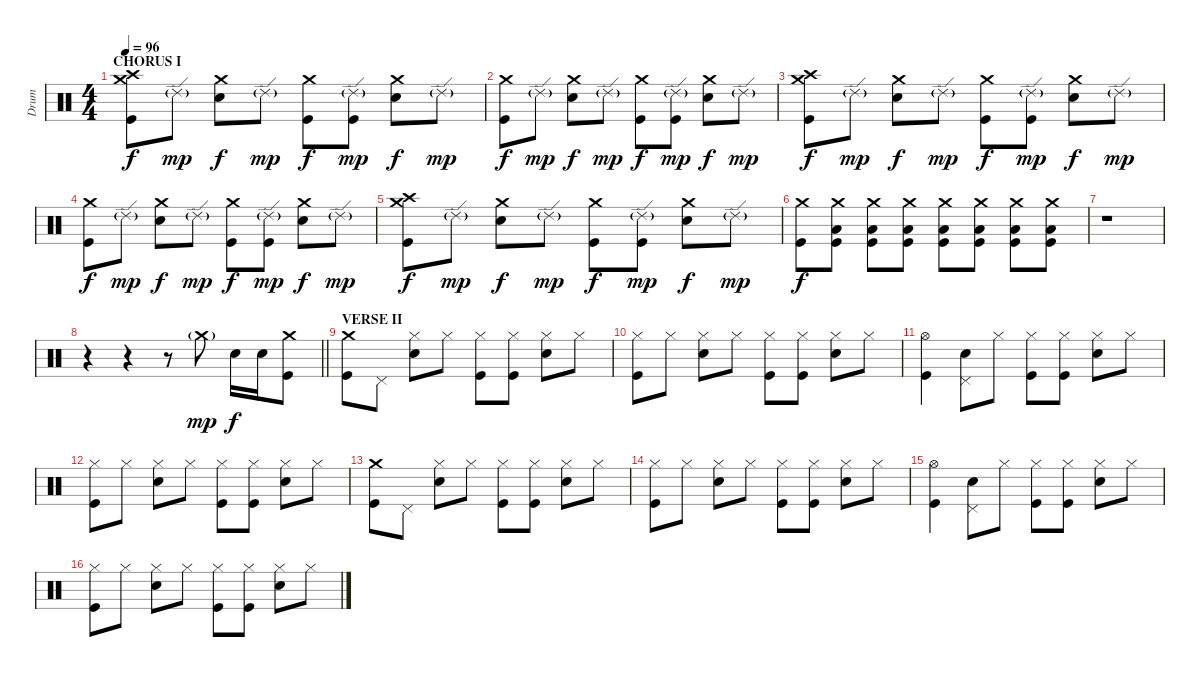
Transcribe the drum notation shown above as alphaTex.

\track ("Drum" "Drum") {instrument percussion}
\staff {score}
\articulation defaults
\ts (4 4)
\section ("" "CHORUS I")
\tempo 96
\clef neutral
\ks c
("Crash high (hit)" "Crash medium (hit)" "Kick (hit)").8{dy f} "Ride (edge) 2"{g}.8{dy mp} ("Crash medium (hit)" "Electric Snare (hit)").8{dy f} "Ride (edge) 2"{g}.8{dy mp} ("Crash medium (hit)" "Kick (hit)").8{dy f} ("Ride (edge) 2"{g} "Kick (hit)").8{dy mp} ("Crash medium (hit)" "Electric Snare (hit)").8{dy f} "Ride (edge) 2"{g}.8{dy mp} |
("Crash medium (hit)" "Kick (hit)").8{dy f} "Ride (edge) 2"{g}.8{dy mp} ("Crash medium (hit)" "Electric Snare (hit)").8{dy f} "Ride (edge) 2"{g}.8{dy mp} ("Crash medium (hit)" "Kick (hit)").8{dy f} ("Ride (edge) 2"{g} "Kick (hit)").8{dy mp} ("Crash medium (hit)" "Electric Snare (hit)").8{dy f} "Ride (edge) 2"{g}.8{dy mp} |
("Crash high (hit)" "Crash medium (hit)" "Kick (hit)").8{dy f} "Ride (edge) 2"{g}.8{dy mp} ("Crash medium (hit)" "Electric Snare (hit)").8{dy f} "Ride (edge) 2"{g}.8{dy mp} ("Crash medium (hit)" "Kick (hit)").8{dy f} ("Ride (edge) 2"{g} "Kick (hit)").8{dy mp} ("Crash medium (hit)" "Electric Snare (hit)").8{dy f} "Ride (edge) 2"{g}.8{dy mp} |
("Crash medium (hit)" "Kick (hit)").8{dy f} "Ride (edge) 2"{g}.8{dy mp} ("Crash medium (hit)" "Electric Snare (hit)").8{dy f} "Ride (edge) 2"{g}.8{dy mp} ("Crash medium (hit)" "Kick (hit)").8{dy f} ("Ride (edge) 2"{g} "Kick (hit)").8{dy mp} ("Crash medium (hit)" "Electric Snare (hit)").8{dy f} "Ride (edge) 2"{g}.8{dy mp} |
("Crash high (hit)" "Crash medium (hit)" "Kick (hit)").8{dy f} "Ride (edge) 2"{g}.8{dy mp} ("Crash medium (hit)" "Electric Snare (hit)").8{dy f} "Ride (edge) 2"{g}.8{dy mp} ("Crash medium (hit)" "Kick (hit)").8{dy f} ("Ride (edge) 2"{g} "Kick (hit)").8{dy mp} ("Crash medium (hit)" "Electric Snare (hit)").8{dy f} "Ride (edge) 2"{g}.8{dy mp} |
("Crash medium (hit)" "Kick (hit)").8{dy f} ("Crash medium (hit)" "Low Floor Tom (hit)" "Kick (hit)").8 ("Crash medium (hit)" "Low Floor Tom (hit)" "Kick (hit)").8 ("Crash medium (hit)" "Low Floor Tom (hit)" "Kick (hit)").8 ("Crash medium (hit)" "Low Floor Tom (hit)" "Kick (hit)").8 ("Crash medium (hit)" "Low Floor Tom (hit)" "Kick (hit)").8 ("Crash medium (hit)" "Low Floor Tom (hit)" "Kick (hit)").8 ("Crash medium (hit)" "Low Floor Tom (hit)" "Kick (hit)").8 |
r.1 |
\barLineRight lightlight
r.4 r.4 r.8 "Crash medium (hit)"{g}.8{dy mp} "Electric Snare (hit)".16{dy f} "Electric Snare (hit)".16 ("Crash medium (hit)" "Kick (hit)").8 |
\section ("" "VERSE II")
("Crash medium (hit)" "Kick (hit)").8 "Pedal Hi-Hat (hit)".8 ("Hi-Hat (closed)" "Electric Snare (hit)").8 "Hi-Hat (closed)".8 ("Hi-Hat (closed)" "Kick (hit)").8 ("Hi-Hat (closed)" "Kick (hit)").8 ("Hi-Hat (closed)" "Electric Snare (hit)").8 "Hi-Hat (closed)".8 |
("Hi-Hat (closed)" "Kick (hit)").8 "Hi-Hat (closed)".8 ("Hi-Hat (closed)" "Electric Snare (hit)").8 "Hi-Hat (closed)".8 ("Hi-Hat (closed)" "Kick (hit)").8 ("Hi-Hat (closed)" "Kick (hit)").8 ("Hi-Hat (closed)" "Electric Snare (hit)").8 "Hi-Hat (closed)".8 |
("Hi-Hat (open)" "Kick (hit)").4 ("Pedal Hi-Hat (hit)" "Electric Snare (hit)").8 "Hi-Hat (closed)".8 ("Hi-Hat (closed)" "Kick (hit)").8 ("Hi-Hat (closed)" "Kick (hit)").8 ("Hi-Hat (closed)" "Electric Snare (hit)").8 "Hi-Hat (closed)".8 |
("Hi-Hat (closed)" "Kick (hit)").8 "Hi-Hat (closed)".8 ("Hi-Hat (closed)" "Electric Snare (hit)").8 "Hi-Hat (closed)".8 ("Hi-Hat (closed)" "Kick (hit)").8 ("Hi-Hat (closed)" "Kick (hit)").8 ("Hi-Hat (closed)" "Electric Snare (hit)").8 "Hi-Hat (closed)".8 |
("Crash medium (hit)" "Kick (hit)").8 "Pedal Hi-Hat (hit)".8 ("Hi-Hat (closed)" "Electric Snare (hit)").8 "Hi-Hat (closed)".8 ("Hi-Hat (closed)" "Kick (hit)").8 ("Hi-Hat (closed)" "Kick (hit)").8 ("Hi-Hat (closed)" "Electric Snare (hit)").8 "Hi-Hat (closed)".8 |
("Hi-Hat (closed)" "Kick (hit)").8 "Hi-Hat (closed)".8 ("Hi-Hat (closed)" "Electric Snare (hit)").8 "Hi-Hat (closed)".8 ("Hi-Hat (closed)" "Kick (hit)").8 ("Hi-Hat (closed)" "Kick (hit)").8 ("Hi-Hat (closed)" "Electric Snare (hit)").8 "Hi-Hat (closed)".8 |
("Hi-Hat (open)" "Kick (hit)").4 ("Pedal Hi-Hat (hit)" "Electric Snare (hit)").8 "Hi-Hat (closed)".8 ("Hi-Hat (closed)" "Kick (hit)").8 ("Hi-Hat (closed)" "Kick (hit)").8 ("Hi-Hat (closed)" "Electric Snare (hit)").8 "Hi-Hat (closed)".8 |
("Hi-Hat (closed)" "Kick (hit)").8 "Hi-Hat (closed)".8 ("Hi-Hat (closed)" "Electric Snare (hit)").8 "Hi-Hat (closed)".8 ("Hi-Hat (closed)" "Kick (hit)").8 ("Hi-Hat (closed)" "Kick (hit)").8 ("Hi-Hat (closed)" "Electric Snare (hit)").8 "Hi-Hat (closed)".8
